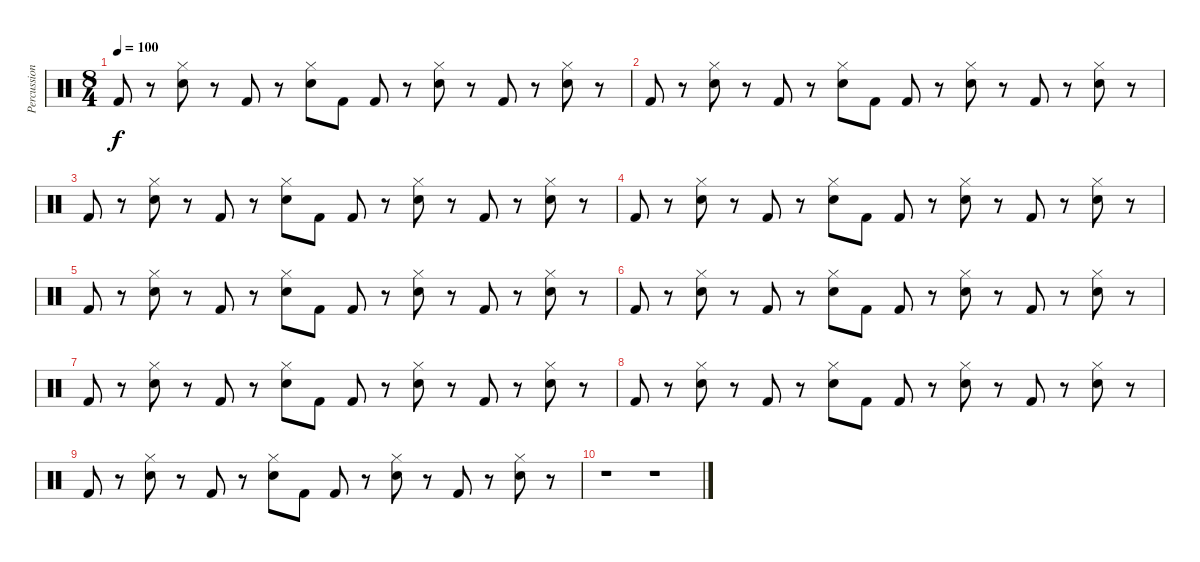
\track ("Percussion" "Percussion") {instrument percussion}
\staff {score}
\articulation defaults
\ts (8 4)
\tempo 100
\clef neutral
\ks c "Kick (hit) 2".8{dy f}
r.8 ("Hi-Hat (closed)" "Snare (hit) 2").8 r.8 "Kick (hit) 2".8 r.8 ("Hi-Hat (closed)" "Snare (hit) 2").8 "Kick (hit) 2".8 "Kick (hit) 2".8 r.8 ("Hi-Hat (closed)" "Snare (hit) 2").8 r.8 "Kick (hit) 2".8 r.8 ("Hi-Hat (closed)" "Snare (hit) 2").8 r.8 |
"Kick (hit) 2".8 r.8 ("Hi-Hat (closed)" "Snare (hit) 2").8 r.8 "Kick (hit) 2".8 r.8 ("Hi-Hat (closed)" "Snare (hit) 2").8 "Kick (hit) 2".8 "Kick (hit) 2".8 r.8 ("Hi-Hat (closed)" "Snare (hit) 2").8 r.8 "Kick (hit) 2".8 r.8 ("Hi-Hat (closed)" "Snare (hit) 2").8 r.8 |
"Kick (hit) 2".8 r.8 ("Hi-Hat (closed)" "Snare (hit) 2").8 r.8 "Kick (hit) 2".8 r.8 ("Hi-Hat (closed)" "Snare (hit) 2").8 "Kick (hit) 2".8 "Kick (hit) 2".8 r.8 ("Hi-Hat (closed)" "Snare (hit) 2").8 r.8 "Kick (hit) 2".8 r.8 ("Hi-Hat (closed)" "Snare (hit) 2").8 r.8 |
"Kick (hit) 2".8 r.8 ("Hi-Hat (closed)" "Snare (hit) 2").8 r.8 "Kick (hit) 2".8 r.8 ("Hi-Hat (closed)" "Snare (hit) 2").8 "Kick (hit) 2".8 "Kick (hit) 2".8 r.8 ("Hi-Hat (closed)" "Snare (hit) 2").8 r.8 "Kick (hit) 2".8 r.8 ("Hi-Hat (closed)" "Snare (hit) 2").8 r.8 |
"Kick (hit) 2".8 r.8 ("Hi-Hat (closed)" "Snare (hit) 2").8 r.8 "Kick (hit) 2".8 r.8 ("Hi-Hat (closed)" "Snare (hit) 2").8 "Kick (hit) 2".8 "Kick (hit) 2".8 r.8 ("Hi-Hat (closed)" "Snare (hit) 2").8 r.8 "Kick (hit) 2".8 r.8 ("Hi-Hat (closed)" "Snare (hit) 2").8 r.8 |
"Kick (hit) 2".8 r.8 ("Hi-Hat (closed)" "Snare (hit) 2").8 r.8 "Kick (hit) 2".8 r.8 ("Hi-Hat (closed)" "Snare (hit) 2").8 "Kick (hit) 2".8 "Kick (hit) 2".8 r.8 ("Hi-Hat (closed)" "Snare (hit) 2").8 r.8 "Kick (hit) 2".8 r.8 ("Hi-Hat (closed)" "Snare (hit) 2").8 r.8 |
"Kick (hit) 2".8 r.8 ("Hi-Hat (closed)" "Snare (hit) 2").8 r.8 "Kick (hit) 2".8 r.8 ("Hi-Hat (closed)" "Snare (hit) 2").8 "Kick (hit) 2".8 "Kick (hit) 2".8 r.8 ("Hi-Hat (closed)" "Snare (hit) 2").8 r.8 "Kick (hit) 2".8 r.8 ("Hi-Hat (closed)" "Snare (hit) 2").8 r.8 |
"Kick (hit) 2".8{volume 0} r.8 ("Hi-Hat (closed)" "Snare (hit) 2").8 r.8 "Kick (hit) 2".8 r.8 ("Hi-Hat (closed)" "Snare (hit) 2").8 "Kick (hit) 2".8 "Kick (hit) 2".8 r.8 ("Hi-Hat (closed)" "Snare (hit) 2").8 r.8 "Kick (hit) 2".8 r.8 ("Hi-Hat (closed)" "Snare (hit) 2").8 r.8 |
"Kick (hit) 2".8 r.8 ("Hi-Hat (closed)" "Snare (hit) 2").8 r.8 "Kick (hit) 2".8 r.8 ("Hi-Hat (closed)" "Snare (hit) 2").8 "Kick (hit) 2".8 "Kick (hit) 2".8 r.8 ("Hi-Hat (closed)" "Snare (hit) 2").8 r.8 "Kick (hit) 2".8 r.8 ("Hi-Hat (closed)" "Snare (hit) 2").8 r.8 |
r.1 r.1
